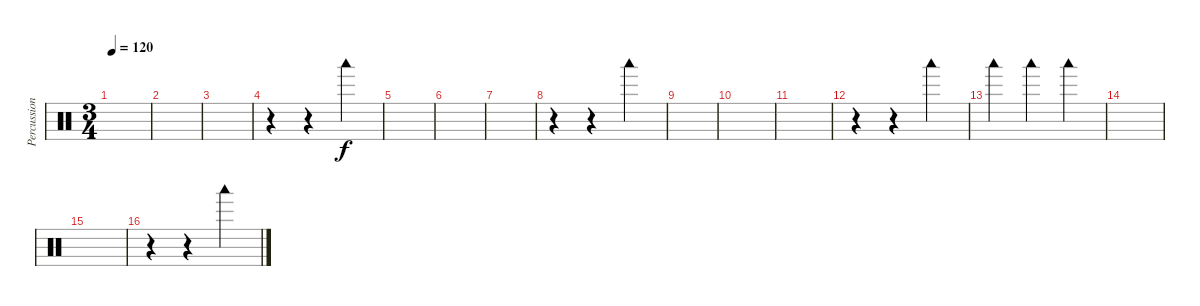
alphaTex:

\track ("Percussion" "Percussion") {instrument percussion}
\staff {score}
\articulation defaults
\ts (3 4)
\tempo 120
\clef neutral
\ks c
|
|
|
r.4 r.4 "Woodblock low (hit)".4 |
|
|
|
r.4 r.4 "Woodblock low (hit)".4 |
|
|
|
r.4 r.4 "Woodblock low (hit)".4 |
"Woodblock low (hit)".4 "Woodblock low (hit)".4 "Woodblock low (hit)".4 |
|
|
r.4 r.4 "Woodblock low (hit)".4
